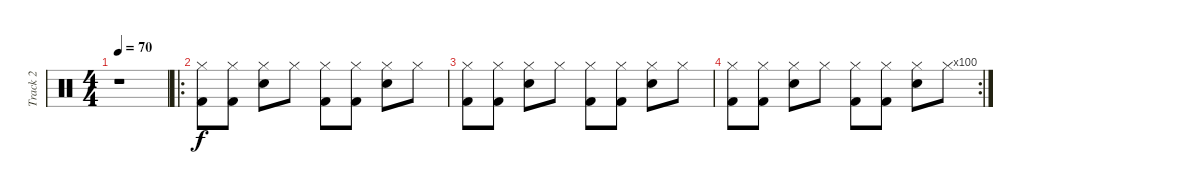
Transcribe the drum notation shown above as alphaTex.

\track ("Track 2" "Track 2") {instrument percussion}
\staff {score}
\articulation defaults
\ts (4 4)
\tempo 70
\clef neutral
\ks c
r.1{dy f} |
\ro
("Hi-Hat (closed)" "Kick (hit) 2").8 ("Hi-Hat (closed)" "Kick (hit) 2").8 ("Hi-Hat (closed)" "Snare (hit) 2").8 "Hi-Hat (closed)".8 ("Hi-Hat (closed)" "Kick (hit) 2").8 ("Hi-Hat (closed)" "Kick (hit) 2").8 ("Hi-Hat (closed)" "Snare (hit) 2").8 "Hi-Hat (closed)".8 |
("Hi-Hat (closed)" "Kick (hit) 2").8 ("Hi-Hat (closed)" "Kick (hit) 2").8 ("Hi-Hat (closed)" "Snare (hit) 2").8 "Hi-Hat (closed)".8 ("Hi-Hat (closed)" "Kick (hit) 2").8 ("Hi-Hat (closed)" "Kick (hit) 2").8 ("Hi-Hat (closed)" "Snare (hit) 2").8 "Hi-Hat (closed)".8 |
\rc 100
("Hi-Hat (closed)" "Kick (hit) 2").8 ("Hi-Hat (closed)" "Kick (hit) 2").8 ("Hi-Hat (closed)" "Snare (hit) 2").8 "Hi-Hat (closed)".8 ("Hi-Hat (closed)" "Kick (hit) 2").8 ("Hi-Hat (closed)" "Kick (hit) 2").8 ("Hi-Hat (closed)" "Snare (hit) 2").8 "Hi-Hat (closed)".8
